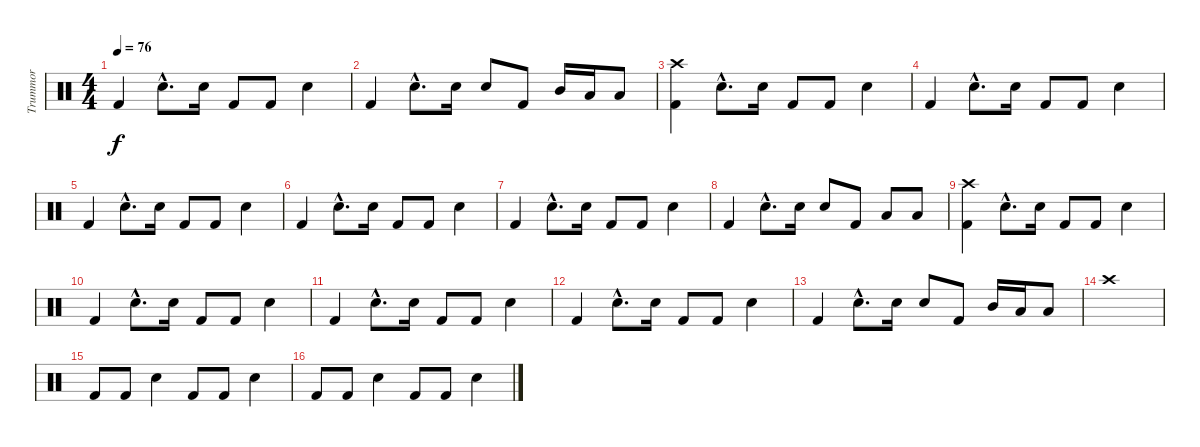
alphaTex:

\track ("Trummor" "Trummor") {instrument percussion}
\staff {score}
\articulation defaults
\ts (4 4)
\tempo 76
\clef neutral
\ks c "Kick (hit) 2".4{dy f} "Snare (hit) 2"{hac}.8{d} "Snare (hit) 2".16 "Kick (hit) 2".8 "Kick (hit) 2".8 "Snare (hit) 2".4
|
"Kick (hit) 2".4 "Snare (hit) 2"{hac}.8{d} "Snare (hit) 2".16 "Snare (hit) 2".8 "Kick (hit) 2".8 "Mid Tom (hit)".16 "Low Floor Tom (hit)".16 "Low Floor Tom (hit)".8 |
("Crash high (hit)" "Kick (hit) 2").4 "Snare (hit) 2"{hac}.8{d} "Snare (hit) 2".16 "Kick (hit) 2".8 "Kick (hit) 2".8 "Snare (hit) 2".4 |
"Kick (hit) 2".4 "Snare (hit) 2"{hac}.8{d} "Snare (hit) 2".16 "Kick (hit) 2".8 "Kick (hit) 2".8 "Snare (hit) 2".4 |
"Kick (hit) 2".4 "Snare (hit) 2"{hac}.8{d} "Snare (hit) 2".16 "Kick (hit) 2".8 "Kick (hit) 2".8 "Snare (hit) 2".4 |
"Kick (hit) 2".4 "Snare (hit) 2"{hac}.8{d} "Snare (hit) 2".16 "Kick (hit) 2".8 "Kick (hit) 2".8 "Snare (hit) 2".4 |
"Kick (hit) 2".4 "Snare (hit) 2"{hac}.8{d} "Snare (hit) 2".16 "Kick (hit) 2".8 "Kick (hit) 2".8 "Snare (hit) 2".4 |
"Kick (hit) 2".4 "Snare (hit) 2"{hac}.8{d} "Snare (hit) 2".16 "Snare (hit) 2".8 "Kick (hit) 2".8 "Low Floor Tom (hit)".8 "Low Floor Tom (hit)".8 |
("Crash high (hit)" "Kick (hit) 2").4 "Snare (hit) 2"{hac}.8{d} "Snare (hit) 2".16 "Kick (hit) 2".8 "Kick (hit) 2".8 "Snare (hit) 2".4 |
"Kick (hit) 2".4 "Snare (hit) 2"{hac}.8{d} "Snare (hit) 2".16 "Kick (hit) 2".8 "Kick (hit) 2".8 "Snare (hit) 2".4 |
"Kick (hit) 2".4 "Snare (hit) 2"{hac}.8{d} "Snare (hit) 2".16 "Kick (hit) 2".8 "Kick (hit) 2".8 "Snare (hit) 2".4 |
"Kick (hit) 2".4 "Snare (hit) 2"{hac}.8{d} "Snare (hit) 2".16 "Kick (hit) 2".8 "Kick (hit) 2".8 "Snare (hit) 2".4 |
"Kick (hit) 2".4 "Snare (hit) 2"{hac}.8{d} "Snare (hit) 2".16 "Snare (hit) 2".8 "Kick (hit) 2".8 "Mid Tom (hit)".16 "Low Floor Tom (hit)".16 "Low Floor Tom (hit)".8 |
"Crash high (hit)".1 |
"Kick (hit) 2".8 "Kick (hit) 2".8 "Snare (hit) 2".4 "Kick (hit) 2".8 "Kick (hit) 2".8 "Snare (hit) 2".4 |
"Kick (hit) 2".8 "Kick (hit) 2".8 "Snare (hit) 2".4 "Kick (hit) 2".8 "Kick (hit) 2".8 "Snare (hit) 2".4
